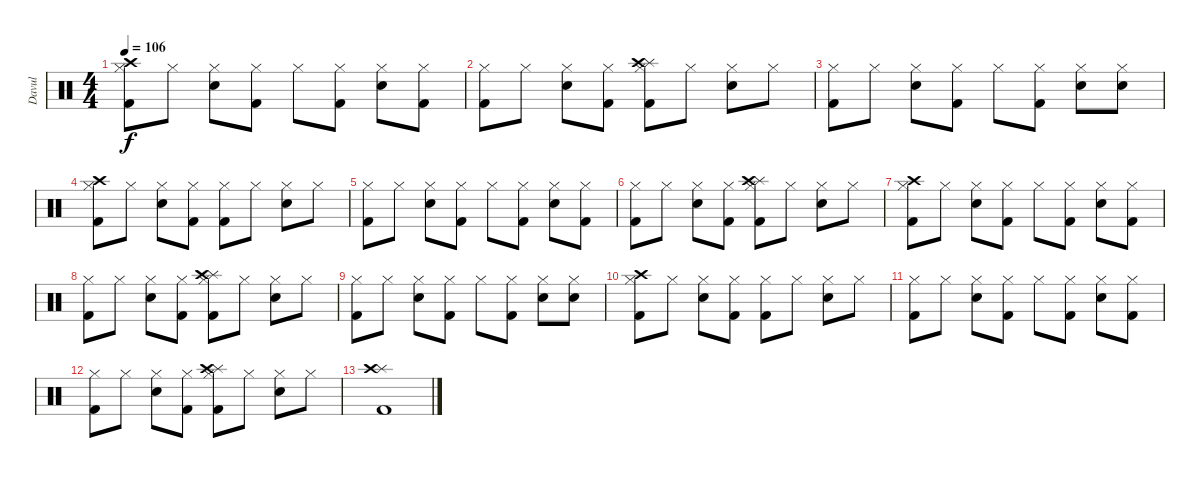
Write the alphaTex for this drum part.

\track ("Davul" "Davul") {instrument percussion}
\staff {score}
\articulation defaults
\ts (4 4)
\tempo 106
\clef neutral
\ks c
("Hi-Hat (closed)" "Kick (hit) 2" "Crash high (hit)").8{dy f} "Hi-Hat (closed)".8 ("Hi-Hat (closed)" "Snare (hit) 2").8 ("Hi-Hat (closed)" "Kick (hit) 2").8 "Hi-Hat (closed)".8 ("Hi-Hat (closed)" "Kick (hit) 2").8 ("Hi-Hat (closed)" "Snare (hit) 2").8 ("Hi-Hat (closed)" "Kick (hit) 2").8 |
("Hi-Hat (closed)" "Kick (hit) 2").8 "Hi-Hat (closed)".8 ("Hi-Hat (closed)" "Snare (hit) 2").8 ("Hi-Hat (closed)" "Kick (hit) 2").8 ("Hi-Hat (closed)" "Splash (hit)" "Kick (hit) 2" "Crash high (hit)").8 "Hi-Hat (closed)".8 ("Hi-Hat (closed)" "Snare (hit) 2").8 "Hi-Hat (closed)".8 |
("Hi-Hat (closed)" "Kick (hit) 2").8 "Hi-Hat (closed)".8 ("Hi-Hat (closed)" "Snare (hit) 2").8 ("Hi-Hat (closed)" "Kick (hit) 2").8 "Hi-Hat (closed)".8 ("Hi-Hat (closed)" "Kick (hit) 2").8 ("Hi-Hat (closed)" "Snare (hit) 2").8 ("Hi-Hat (closed)" "Snare (hit) 2").8 |
("Hi-Hat (closed)" "Kick (hit) 2" "Crash high (hit)").8 "Hi-Hat (closed)".8 ("Hi-Hat (closed)" "Snare (hit) 2").8 ("Hi-Hat (closed)" "Kick (hit) 2").8 ("Hi-Hat (closed)" "Kick (hit) 2").8 "Hi-Hat (closed)".8 ("Hi-Hat (closed)" "Snare (hit) 2").8 "Hi-Hat (closed)".8 |
("Hi-Hat (closed)" "Kick (hit) 2").8 "Hi-Hat (closed)".8 ("Hi-Hat (closed)" "Snare (hit) 2").8 ("Hi-Hat (closed)" "Kick (hit) 2").8 "Hi-Hat (closed)".8 ("Hi-Hat (closed)" "Kick (hit) 2").8 ("Hi-Hat (closed)" "Snare (hit) 2").8 ("Hi-Hat (closed)" "Kick (hit) 2").8 |
("Hi-Hat (closed)" "Kick (hit) 2").8 "Hi-Hat (closed)".8 ("Hi-Hat (closed)" "Snare (hit) 2").8 ("Hi-Hat (closed)" "Kick (hit) 2").8 ("Hi-Hat (closed)" "Splash (hit)" "Kick (hit) 2" "Crash high (hit)").8 "Hi-Hat (closed)".8 ("Hi-Hat (closed)" "Snare (hit) 2").8 "Hi-Hat (closed)".8 |
("Hi-Hat (closed)" "Kick (hit) 2" "Crash high (hit)").8 "Hi-Hat (closed)".8 ("Hi-Hat (closed)" "Snare (hit) 2").8 ("Hi-Hat (closed)" "Kick (hit) 2").8 "Hi-Hat (closed)".8 ("Hi-Hat (closed)" "Kick (hit) 2").8 ("Hi-Hat (closed)" "Snare (hit) 2").8 ("Hi-Hat (closed)" "Kick (hit) 2").8 |
("Hi-Hat (closed)" "Kick (hit) 2").8 "Hi-Hat (closed)".8 ("Hi-Hat (closed)" "Snare (hit) 2").8 ("Hi-Hat (closed)" "Kick (hit) 2").8 ("Hi-Hat (closed)" "Splash (hit)" "Kick (hit) 2" "Crash high (hit)").8 "Hi-Hat (closed)".8 ("Hi-Hat (closed)" "Snare (hit) 2").8 "Hi-Hat (closed)".8 |
("Hi-Hat (closed)" "Kick (hit) 2").8 "Hi-Hat (closed)".8 ("Hi-Hat (closed)" "Snare (hit) 2").8 ("Hi-Hat (closed)" "Kick (hit) 2").8 "Hi-Hat (closed)".8 ("Hi-Hat (closed)" "Kick (hit) 2").8 ("Hi-Hat (closed)" "Snare (hit) 2").8 ("Hi-Hat (closed)" "Snare (hit) 2").8 |
("Hi-Hat (closed)" "Kick (hit) 2" "Crash high (hit)").8 "Hi-Hat (closed)".8 ("Hi-Hat (closed)" "Snare (hit) 2").8 ("Hi-Hat (closed)" "Kick (hit) 2").8 ("Hi-Hat (closed)" "Kick (hit) 2").8 "Hi-Hat (closed)".8 ("Hi-Hat (closed)" "Snare (hit) 2").8 "Hi-Hat (closed)".8 |
("Hi-Hat (closed)" "Kick (hit) 2").8 "Hi-Hat (closed)".8 ("Hi-Hat (closed)" "Snare (hit) 2").8 ("Hi-Hat (closed)" "Kick (hit) 2").8 "Hi-Hat (closed)".8 ("Hi-Hat (closed)" "Kick (hit) 2").8 ("Hi-Hat (closed)" "Snare (hit) 2").8 ("Hi-Hat (closed)" "Kick (hit) 2").8 |
("Hi-Hat (closed)" "Kick (hit) 2").8 "Hi-Hat (closed)".8 ("Hi-Hat (closed)" "Snare (hit) 2").8 ("Hi-Hat (closed)" "Kick (hit) 2").8 ("Hi-Hat (closed)" "Splash (hit)" "Kick (hit) 2" "Crash high (hit)").8 "Hi-Hat (closed)".8 ("Hi-Hat (closed)" "Snare (hit) 2").8 "Hi-Hat (closed)".8 |
("Splash (hit)" "Crash high (hit)" "Kick (hit) 2").1
